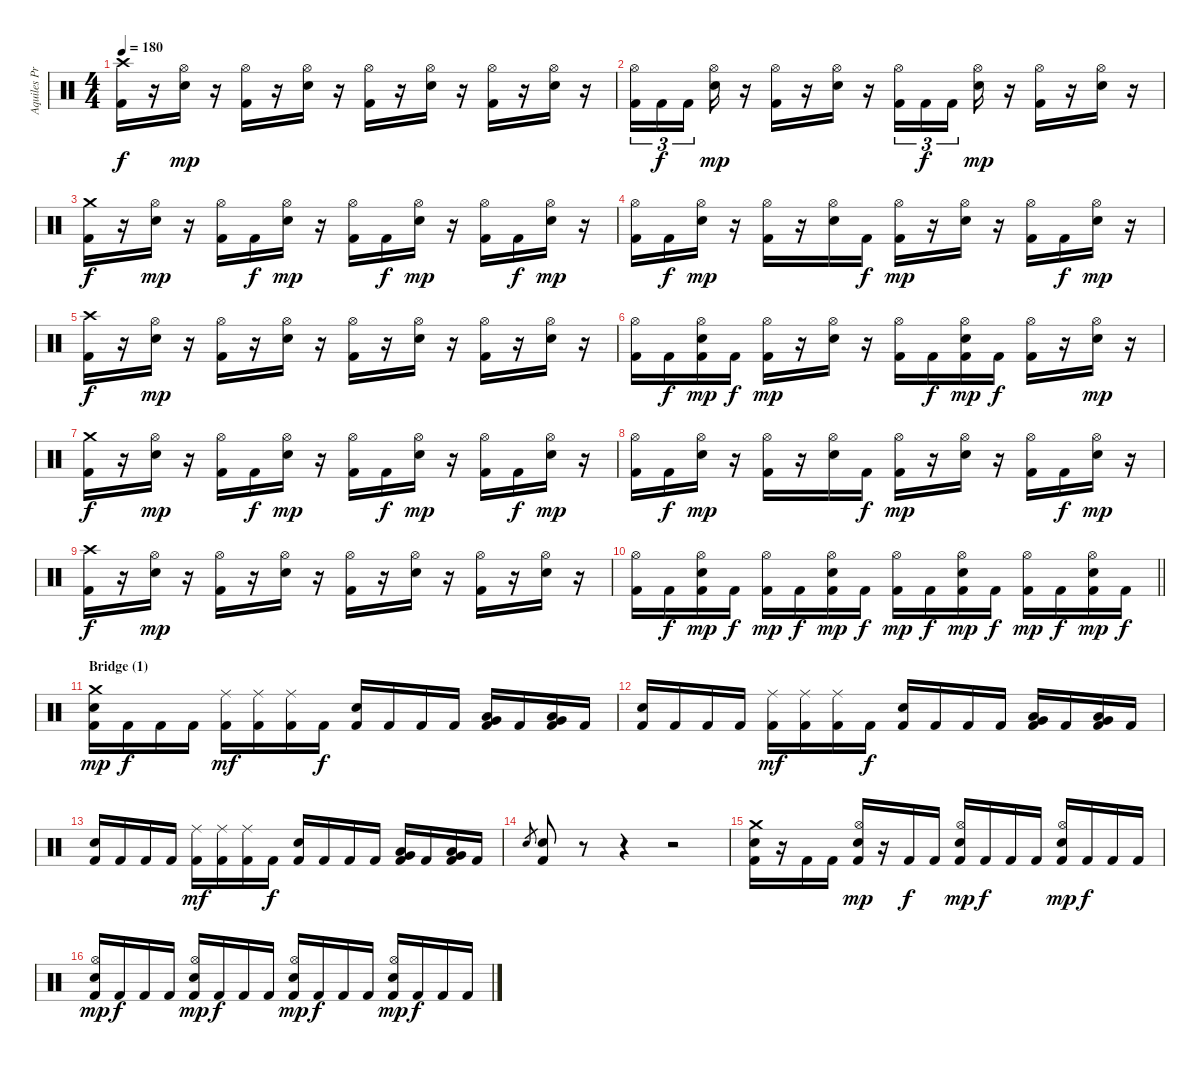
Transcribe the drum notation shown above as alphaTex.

\track ("Aquiles Priester" "Aquiles Pr") {instrument percussion}
\staff {score}
\articulation defaults
\ts (4 4)
\tempo 180
\clef neutral
\ks c
("Crash high (hit)" "Kick (hit) 2").16{dy f} r.16 ("Hi-Hat (open)" "Snare (hit) 2").16{dy mp} r.16 ("Hi-Hat (open)" "Kick (hit) 2").16 r.16 ("Hi-Hat (open)" "Snare (hit) 2").16 r.16 ("Hi-Hat (open)" "Kick (hit) 2").16 r.16 ("Hi-Hat (open)" "Snare (hit) 2").16 r.16 ("Hi-Hat (open)" "Kick (hit) 2").16 r.16 ("Hi-Hat (open)" "Snare (hit) 2").16 r.16 |
("Hi-Hat (open)" "Kick (hit) 2").16{tu (3 2)} "Kick (hit) 2".16{tu (3 2) dy f} "Kick (hit) 2".16{tu (3 2) beam splitsecondary} ("Hi-Hat (open)" "Snare (hit) 2").16{dy mp} r.16 ("Hi-Hat (open)" "Kick (hit) 2").16 r.16 ("Hi-Hat (open)" "Snare (hit) 2").16 r.16 ("Hi-Hat (open)" "Kick (hit) 2").16{tu (3 2)} "Kick (hit) 2".16{tu (3 2) dy f} "Kick (hit) 2".16{tu (3 2) beam splitsecondary} ("Hi-Hat (open)" "Snare (hit) 2").16{dy mp} r.16 ("Hi-Hat (open)" "Kick (hit) 2").16 r.16 ("Hi-Hat (open)" "Snare (hit) 2").16 r.16 |
("Crash medium (hit)" "Kick (hit) 2").16{dy f} r.16 ("Hi-Hat (open)" "Snare (hit) 2").16{dy mp} r.16 ("Hi-Hat (open)" "Kick (hit) 2").16 "Kick (hit) 2".16{dy f} ("Hi-Hat (open)" "Snare (hit) 2").16{dy mp} r.16 ("Hi-Hat (open)" "Kick (hit) 2").16 "Kick (hit) 2".16{dy f} ("Hi-Hat (open)" "Snare (hit) 2").16{dy mp} r.16 ("Hi-Hat (open)" "Kick (hit) 2").16 "Kick (hit) 2".16{dy f} ("Hi-Hat (open)" "Snare (hit) 2").16{dy mp} r.16 |
("Hi-Hat (open)" "Kick (hit) 2").16 "Kick (hit) 2".16{dy f} ("Hi-Hat (open)" "Snare (hit) 2").16{dy mp} r.16 ("Hi-Hat (open)" "Kick (hit) 2").16 r.16 ("Hi-Hat (open)" "Snare (hit) 2").16 "Kick (hit) 2".16{dy f} ("Hi-Hat (open)" "Kick (hit) 2").16{dy mp} r.16 ("Hi-Hat (open)" "Snare (hit) 2").16 r.16 ("Hi-Hat (open)" "Kick (hit) 2").16 "Kick (hit) 2".16{dy f} ("Hi-Hat (open)" "Snare (hit) 2").16{dy mp} r.16 |
("Crash high (hit)" "Kick (hit) 2").16{dy f} r.16 ("Hi-Hat (open)" "Snare (hit) 2").16{dy mp} r.16 ("Hi-Hat (open)" "Kick (hit) 2").16 r.16 ("Hi-Hat (open)" "Snare (hit) 2").16 r.16 ("Hi-Hat (open)" "Kick (hit) 2").16 r.16 ("Hi-Hat (open)" "Snare (hit) 2").16 r.16 ("Hi-Hat (open)" "Kick (hit) 2").16 r.16 ("Hi-Hat (open)" "Snare (hit) 2").16 r.16 |
("Hi-Hat (open)" "Kick (hit) 2").16 "Kick (hit) 2".16{dy f} ("Hi-Hat (open)" "Snare (hit) 2" "Kick (hit) 2").16{dy mp} "Kick (hit) 2".16{dy f} ("Hi-Hat (open)" "Kick (hit) 2").16{dy mp} r.16 ("Hi-Hat (open)" "Snare (hit) 2").16 r.16 ("Hi-Hat (open)" "Kick (hit) 2").16 "Kick (hit) 2".16{dy f} ("Hi-Hat (open)" "Snare (hit) 2" "Kick (hit) 2").16{dy mp} "Kick (hit) 2".16{dy f} ("Hi-Hat (open)" "Kick (hit) 2").16 r.16 ("Hi-Hat (open)" "Snare (hit) 2").16{dy mp} r.16 |
("Crash medium (hit)" "Kick (hit) 2").16{dy f} r.16 ("Hi-Hat (open)" "Snare (hit) 2").16{dy mp} r.16 ("Hi-Hat (open)" "Kick (hit) 2").16 "Kick (hit) 2".16{dy f} ("Hi-Hat (open)" "Snare (hit) 2").16{dy mp} r.16 ("Hi-Hat (open)" "Kick (hit) 2").16 "Kick (hit) 2".16{dy f} ("Hi-Hat (open)" "Snare (hit) 2").16{dy mp} r.16 ("Hi-Hat (open)" "Kick (hit) 2").16 "Kick (hit) 2".16{dy f} ("Hi-Hat (open)" "Snare (hit) 2").16{dy mp} r.16 |
("Hi-Hat (open)" "Kick (hit) 2").16 "Kick (hit) 2".16{dy f} ("Hi-Hat (open)" "Snare (hit) 2").16{dy mp} r.16 ("Hi-Hat (open)" "Kick (hit) 2").16 r.16 ("Hi-Hat (open)" "Snare (hit) 2").16 "Kick (hit) 2".16{dy f} ("Hi-Hat (open)" "Kick (hit) 2").16{dy mp} r.16 ("Hi-Hat (open)" "Snare (hit) 2").16 r.16 ("Hi-Hat (open)" "Kick (hit) 2").16 "Kick (hit) 2".16{dy f} ("Hi-Hat (open)" "Snare (hit) 2").16{dy mp} r.16 |
("Crash high (hit)" "Kick (hit) 2").16{dy f} r.16 ("Hi-Hat (open)" "Snare (hit) 2").16{dy mp} r.16 ("Hi-Hat (open)" "Kick (hit) 2").16 r.16 ("Hi-Hat (open)" "Snare (hit) 2").16 r.16 ("Hi-Hat (open)" "Kick (hit) 2").16 r.16 ("Hi-Hat (open)" "Snare (hit) 2").16 r.16 ("Hi-Hat (open)" "Kick (hit) 2").16 r.16 ("Hi-Hat (open)" "Snare (hit) 2").16 r.16 |
\barLineRight lightlight
("Hi-Hat (open)" "Kick (hit) 2").16 "Kick (hit) 2".16{dy f} ("Hi-Hat (open)" "Snare (hit) 2" "Kick (hit) 2").16{dy mp} "Kick (hit) 2".16{dy f} ("Hi-Hat (open)" "Kick (hit) 2").16{dy mp} "Kick (hit) 2".16{dy f} ("Hi-Hat (open)" "Snare (hit) 2" "Kick (hit) 2").16{dy mp} "Kick (hit) 2".16{dy f} ("Hi-Hat (open)" "Kick (hit) 2").16{dy mp} "Kick (hit) 2".16{dy f} ("Hi-Hat (open)" "Snare (hit) 2" "Kick (hit) 2").16{dy mp} "Kick (hit) 2".16{dy f} ("Hi-Hat (open)" "Kick (hit) 2").16{dy mp} "Kick (hit) 2".16{dy f} ("Hi-Hat (open)" "Snare (hit) 2" "Kick (hit) 2").16{dy mp} "Kick (hit) 2".16{dy f} |
\section ("" "Bridge (1)")
("Crash medium (hit)" "Snare (hit) 2" "Kick (hit) 2").16{dy mp} "Kick (hit) 2".16{dy f} "Kick (hit) 2".16 "Kick (hit) 2".16 ("Ride (middle)" "Kick (hit) 2").16{dy mf} ("Ride (middle)" "Kick (hit) 2").16 ("Ride (middle)" "Kick (hit) 2").16 "Kick (hit) 2".16{dy f} ("Snare (hit) 2" "Kick (hit) 2").16 "Kick (hit) 2".16 "Kick (hit) 2".16 "Kick (hit) 2".16 ("Low Tom (hit)" "Very Low Tom (hit)" "Kick (hit) 2").16 "Kick (hit) 2".16 ("Low Tom (hit)" "Very Low Tom (hit)" "Kick (hit) 2").16 "Kick (hit) 2".16 |
("Snare (hit) 2" "Kick (hit) 2").16 "Kick (hit) 2".16 "Kick (hit) 2".16 "Kick (hit) 2".16 ("Ride (middle)" "Kick (hit) 2").16{dy mf} ("Ride (middle)" "Kick (hit) 2").16 ("Ride (middle)" "Kick (hit) 2").16 "Kick (hit) 2".16{dy f} ("Snare (hit) 2" "Kick (hit) 2").16 "Kick (hit) 2".16 "Kick (hit) 2".16 "Kick (hit) 2".16 ("Low Tom (hit)" "Very Low Tom (hit)" "Kick (hit) 2").16 "Kick (hit) 2".16 ("Low Tom (hit)" "Very Low Tom (hit)" "Kick (hit) 2").16 "Kick (hit) 2".16 |
("Snare (hit) 2" "Kick (hit) 2").16 "Kick (hit) 2".16 "Kick (hit) 2".16 "Kick (hit) 2".16 ("Ride (middle)" "Kick (hit) 2").16{dy mf} ("Ride (middle)" "Kick (hit) 2").16 ("Ride (middle)" "Kick (hit) 2").16 "Kick (hit) 2".16{dy f} ("Snare (hit) 2" "Kick (hit) 2").16 "Kick (hit) 2".16 "Kick (hit) 2".16 "Kick (hit) 2".16 ("Low Tom (hit)" "Very Low Tom (hit)" "Kick (hit) 2").16 "Kick (hit) 2".16 ("Low Tom (hit)" "Very Low Tom (hit)" "Kick (hit) 2").16 "Kick (hit) 2".16 |
"Snare (hit) 2".8{gr} ("Snare (hit) 2" "Kick (hit) 2").8 r.8 r.4 r.2 |
("Crash medium (hit)" "Snare (hit) 2" "Kick (hit) 2").16 r.16 "Kick (hit) 2".16 "Kick (hit) 2".16 ("Hi-Hat (open)" "Snare (hit) 2" "Kick (hit) 2").16{dy mp} r.16 "Kick (hit) 2".16{dy f} "Kick (hit) 2".16 ("Hi-Hat (open)" "Snare (hit) 2" "Kick (hit) 2").16{dy mp} "Kick (hit) 2".16{dy f} "Kick (hit) 2".16 "Kick (hit) 2".16 ("Hi-Hat (open)" "Snare (hit) 2" "Kick (hit) 2").16{dy mp} "Kick (hit) 2".16{dy f} "Kick (hit) 2".16 "Kick (hit) 2".16 |
("Hi-Hat (open)" "Snare (hit) 2" "Kick (hit) 2").16{dy mp} "Kick (hit) 2".16{dy f} "Kick (hit) 2".16 "Kick (hit) 2".16 ("Hi-Hat (open)" "Snare (hit) 2" "Kick (hit) 2").16{dy mp} "Kick (hit) 2".16{dy f} "Kick (hit) 2".16 "Kick (hit) 2".16 ("Hi-Hat (open)" "Snare (hit) 2" "Kick (hit) 2").16{dy mp} "Kick (hit) 2".16{dy f} "Kick (hit) 2".16 "Kick (hit) 2".16 ("Hi-Hat (open)" "Snare (hit) 2" "Kick (hit) 2").16{dy mp} "Kick (hit) 2".16{dy f} "Kick (hit) 2".16 "Kick (hit) 2".16
